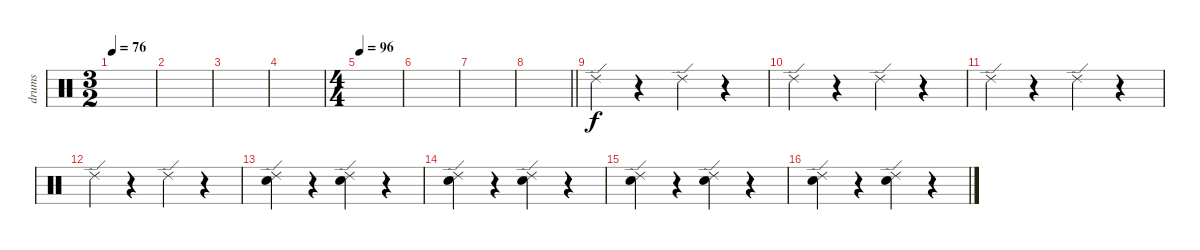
\track ("drums" "drums") {instrument percussion}
\staff {score}
\articulation defaults
\ts (3 2)
\tempo 76
\clef neutral
\ks c
|
|
|
|
\ts (4 4)
\tempo 96
|
|
|
\barLineRight lightlight
|
"Ride (edge) 2".4 r.4 "Ride (edge) 2".4 r.4 |
"Ride (edge) 2".4 r.4 "Ride (edge) 2".4 r.4 |
"Ride (edge) 2".4 r.4 "Ride (edge) 2".4 r.4 |
"Ride (edge) 2".4 r.4 "Ride (edge) 2".4 r.4 |
("Snare (hit) 2" "Ride (edge) 2").4 r.4 ("Snare (hit) 2" "Ride (edge) 2").4 r.4 |
("Snare (hit) 2" "Ride (edge) 2").4 r.4 ("Snare (hit) 2" "Ride (edge) 2").4 r.4 |
("Snare (hit) 2" "Ride (edge) 2").4 r.4 ("Snare (hit) 2" "Ride (edge) 2").4 r.4 |
("Snare (hit) 2" "Ride (edge) 2").4 r.4 ("Snare (hit) 2" "Ride (edge) 2").4 r.4
